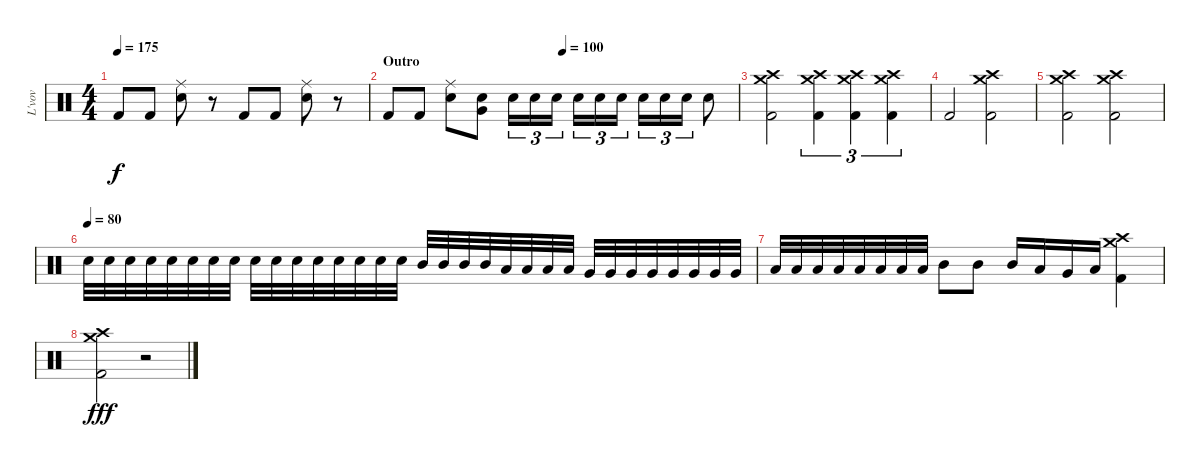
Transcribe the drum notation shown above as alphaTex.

\track ("L'vov" "L'vov") {instrument percussion}
\staff {score}
\articulation defaults
\ts (4 4)
\tempo 175
\clef neutral
\ks c "Kick (hit) 2".8{dy f} "Kick (hit) 2".8
("Snare (hit) 2" "Ride (middle)").8 r.8 "Kick (hit) 2".8 "Kick (hit) 2".8 ("Snare (hit) 2" "Ride (middle)").8 r.8 |
\section ("" "Outro")
\tempo (100 0.5)
"Kick (hit) 2".8 "Kick (hit) 2".8 ("Snare (hit) 2" "Ride (middle)").8 ("Snare (hit) 2" "Very Low Tom (hit)").8 "Snare (hit) 2".16{tu (3 2)} "Snare (hit) 2".16{tu (3 2)} "Snare (hit) 2".16{tu (3 2)} "Snare (hit) 2".16{tu (3 2)} "Snare (hit) 2".16{tu (3 2)} "Snare (hit) 2".16{tu (3 2)} "Snare (hit) 2".16{tu (3 2)} "Snare (hit) 2".16{tu (3 2)} "Snare (hit) 2".16{tu (3 2)} "Snare (hit) 2".8 |
("Kick (hit) 2" "Crash high (hit)" "Crash medium (hit)").2 ("Kick (hit) 2" "Crash high (hit)" "Crash medium (hit)").4{tu (3 2)} ("Kick (hit) 2" "Crash high (hit)" "Crash medium (hit)").4{tu (3 2)} ("Kick (hit) 2" "Crash high (hit)" "Crash medium (hit)").4{tu (3 2)} |
"Kick (hit) 2".2 ("Kick (hit) 2" "Crash high (hit)" "Crash medium (hit)").2 |
("Kick (hit) 2" "Crash high (hit)" "Crash medium (hit)").2 ("Kick (hit) 2" "Crash high (hit)" "Crash medium (hit)").2 |
\tempo (80)
"Snare (hit) 2".32 "Snare (hit) 2".32 "Snare (hit) 2".32 "Snare (hit) 2".32 "Snare (hit) 2".32 "Snare (hit) 2".32 "Snare (hit) 2".32 "Snare (hit) 2".32 "Snare (hit) 2".32 "Snare (hit) 2".32 "Snare (hit) 2".32 "Snare (hit) 2".32 "Snare (hit) 2".32 "Snare (hit) 2".32 "Snare (hit) 2".32 "Snare (hit) 2".32 "Mid Tom (hit)".32 "Mid Tom (hit)".32 "Mid Tom (hit)".32 "Mid Tom (hit)".32 "Low Tom (hit)".32 "Low Tom (hit)".32 "Low Tom (hit)".32 "Low Tom (hit)".32 "Very Low Tom (hit)".32 "Very Low Tom (hit)".32 "Very Low Tom (hit)".32 "Very Low Tom (hit)".32 "Very Low Tom (hit)".32 "Very Low Tom (hit)".32 "Very Low Tom (hit)".32 "Very Low Tom (hit)".32 |
"Low Floor Tom (hit)".32 "Low Floor Tom (hit)".32 "Low Floor Tom (hit)".32 "Low Floor Tom (hit)".32 "Low Floor Tom (hit)".32 "Low Floor Tom (hit)".32 "Low Floor Tom (hit)".32 "Low Floor Tom (hit)".32 "Mid Tom (hit)".8 "Mid Tom (hit)".8 "Mid Tom (hit)".16 "Low Tom (hit)".16 "Very Low Tom (hit)".16 "Low Floor Tom (hit)".16 ("Crash high (hit)" "Crash medium (hit)" "Kick (hit) 2").4 |
("Crash high (hit)" "Crash medium (hit)" "Kick (hit) 2").2{dy fff} r.2
